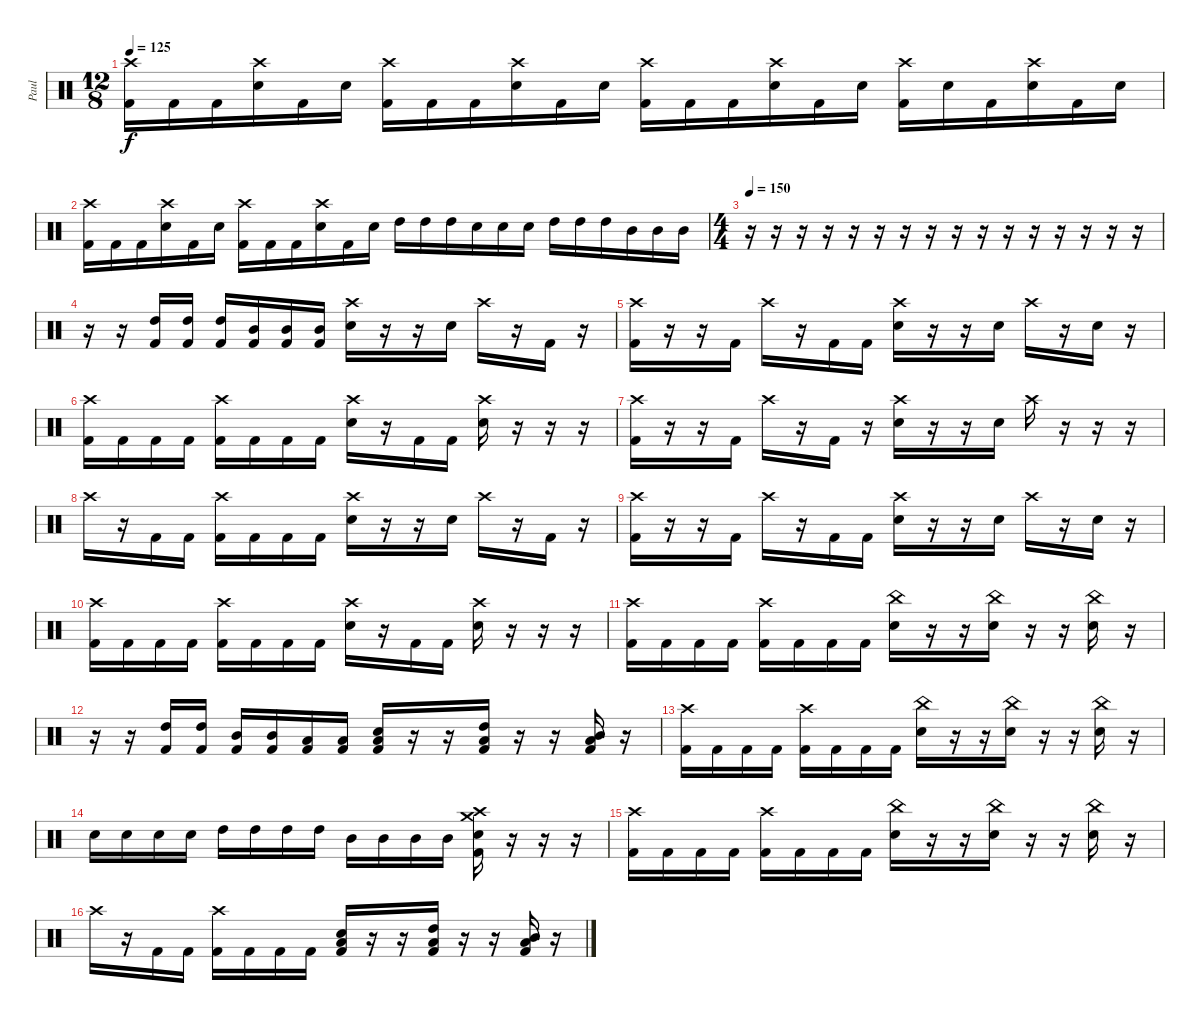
\track ("Paul" "Paul") {instrument percussion}
\staff {score}
\articulation defaults
\ts (12 8)
\tempo 125
\clef neutral
\ks c
("Crash high (hit)" "Kick (hit) 2").16{dy f} "Kick (hit) 2".16 "Kick (hit) 2".16 ("Crash high (hit)" "Electric Snare (hit)").16 "Kick (hit) 2".16 "Electric Snare (hit)".16 ("Crash high (hit)" "Kick (hit) 2").16 "Kick (hit) 2".16 "Kick (hit) 2".16 ("Crash high (hit)" "Electric Snare (hit)").16 "Kick (hit) 2".16 "Electric Snare (hit)".16 ("Crash high (hit)" "Kick (hit) 2").16 "Kick (hit) 2".16 "Kick (hit) 2".16 ("Crash high (hit)" "Electric Snare (hit)").16 "Kick (hit) 2".16 "Electric Snare (hit)".16 ("Crash high (hit)" "Kick (hit) 2").16 "Electric Snare (hit)".16 "Kick (hit) 2".16 ("Crash high (hit)" "Electric Snare (hit)").16 "Kick (hit) 2".16 "Electric Snare (hit)".16 |
("Crash high (hit)" "Kick (hit) 2").16 "Kick (hit) 2".16 "Kick (hit) 2".16 ("Crash high (hit)" "Electric Snare (hit)").16 "Kick (hit) 2".16 "Electric Snare (hit)".16 ("Crash high (hit)" "Kick (hit) 2").16 "Kick (hit) 2".16 "Kick (hit) 2".16 ("Crash high (hit)" "Electric Snare (hit)").16 "Kick (hit) 2".16 "Electric Snare (hit)".16 "High Tom (hit)".16 "High Tom (hit)".16 "High Tom (hit)".16 "Electric Snare (hit)".16 "Electric Snare (hit)".16 "Electric Snare (hit)".16 "High Tom (hit)".16 "High Tom (hit)".16 "High Tom (hit)".16 "Mid Tom (hit)".16 "Mid Tom (hit)".16 "Mid Tom (hit)".16 |
\ts (4 4)
\tempo 150
r.16 r.16 r.16 r.16 r.16 r.16 r.16 r.16 r.16 r.16 r.16 r.16 r.16 r.16 r.16 r.16 |
r.16 r.16 ("High Tom (hit)" "Kick (hit) 2").16 ("High Tom (hit)" "Kick (hit) 2").16 ("High Tom (hit)" "Kick (hit) 2").16 ("Mid Tom (hit)" "Kick (hit) 2").16 ("Mid Tom (hit)" "Kick (hit) 2").16 ("Mid Tom (hit)" "Kick (hit) 2").16 ("Crash high (hit)" "Electric Snare (hit)").16 r.16 r.16 "Electric Snare (hit)".16 "Crash high (hit)".16 r.16 "Kick (hit) 2".16 r.16 |
("Crash high (hit)" "Kick (hit) 2").16 r.16 r.16 "Kick (hit) 2".16 "Crash high (hit)".16 r.16 "Kick (hit) 2".16 "Kick (hit) 2".16 ("Crash high (hit)" "Electric Snare (hit)").16 r.16 r.16 "Electric Snare (hit)".16 "Crash high (hit)".16 r.16 "Electric Snare (hit)".16 r.16 |
("Crash high (hit)" "Kick (hit) 2").16 "Kick (hit) 2".16 "Kick (hit) 2".16 "Kick (hit) 2".16 ("Crash high (hit)" "Kick (hit) 2").16 "Kick (hit) 2".16 "Kick (hit) 2".16 "Kick (hit) 2".16 ("Crash high (hit)" "Electric Snare (hit)").16 r.16 "Kick (hit) 2".16 "Kick (hit) 2".16 ("Crash high (hit)" "Electric Snare (hit)").16 r.16 r.16 r.16 |
("Crash high (hit)" "Kick (hit) 2").16 r.16 r.16 "Kick (hit) 2".16 "Crash high (hit)".16 r.16 "Kick (hit) 2".16 r.16 ("Crash high (hit)" "Electric Snare (hit)").16 r.16 r.16 "Electric Snare (hit)".16 "Crash high (hit)".16 r.16 r.16 r.16 |
"Crash high (hit)".16 r.16 "Kick (hit) 2".16 "Kick (hit) 2".16 ("Crash high (hit)" "Kick (hit) 2").16 "Kick (hit) 2".16 "Kick (hit) 2".16 "Kick (hit) 2".16 ("Crash high (hit)" "Electric Snare (hit)").16 r.16 r.16 "Electric Snare (hit)".16 "Crash high (hit)".16 r.16 "Kick (hit) 2".16 r.16 |
("Crash high (hit)" "Kick (hit) 2").16 r.16 r.16 "Kick (hit) 2".16 "Crash high (hit)".16 r.16 "Kick (hit) 2".16 "Kick (hit) 2".16 ("Crash high (hit)" "Electric Snare (hit)").16 r.16 r.16 "Electric Snare (hit)".16 "Crash high (hit)".16 r.16 "Electric Snare (hit)".16 r.16 |
("Crash high (hit)" "Kick (hit) 2").16 "Kick (hit) 2".16 "Kick (hit) 2".16 "Kick (hit) 2".16 ("Crash high (hit)" "Kick (hit) 2").16 "Kick (hit) 2".16 "Kick (hit) 2".16 "Kick (hit) 2".16 ("Crash high (hit)" "Electric Snare (hit)").16 r.16 "Kick (hit) 2".16 "Kick (hit) 2".16 ("Crash high (hit)" "Electric Snare (hit)").16 r.16 r.16 r.16 |
("Crash high (hit)" "Kick (hit) 2").16 "Kick (hit) 2".16 "Kick (hit) 2".16 "Kick (hit) 2".16 ("Crash high (hit)" "Kick (hit) 2").16 "Kick (hit) 2".16 "Kick (hit) 2".16 "Kick (hit) 2".16 ("China (hit)" "Electric Snare (hit)").16 r.16 r.16 ("China (hit)" "Electric Snare (hit)").16 r.16 r.16 ("China (hit)" "Electric Snare (hit)").16 r.16 |
r.16 r.16 ("High Tom (hit)" "Kick (hit) 2").16 ("High Tom (hit)" "Kick (hit) 2").16 ("Mid Tom (hit)" "Kick (hit) 2").16 ("Mid Tom (hit)" "Kick (hit) 2").16 ("Low Tom (hit)" "Kick (hit) 2").16 ("Low Tom (hit)" "Kick (hit) 2").16 ("Electric Snare (hit)" "Low Tom (hit)" "Kick (hit) 2").16 r.16 r.16 ("High Tom (hit)" "Low Tom (hit)" "Kick (hit) 2").16 r.16 r.16 ("Mid Tom (hit)" "Low Tom (hit)" "Kick (hit) 2").16 r.16 |
("Crash high (hit)" "Kick (hit) 2").16 "Kick (hit) 2".16 "Kick (hit) 2".16 "Kick (hit) 2".16 ("Crash high (hit)" "Kick (hit) 2").16 "Kick (hit) 2".16 "Kick (hit) 2".16 "Kick (hit) 2".16 ("China (hit)" "Electric Snare (hit)").16 r.16 r.16 ("China (hit)" "Electric Snare (hit)").16 r.16 r.16 ("China (hit)" "Electric Snare (hit)").16 r.16 |
"Electric Snare (hit)".16 "Electric Snare (hit)".16 "Electric Snare (hit)".16 "Electric Snare (hit)".16 "High Tom (hit)".16 "High Tom (hit)".16 "High Tom (hit)".16 "High Tom (hit)".16 "Mid Tom (hit)".16 "Mid Tom (hit)".16 "Mid Tom (hit)".16 "Mid Tom (hit)".16 ("Crash high (hit)" "Crash medium (hit)" "Electric Snare (hit)" "Kick (hit) 2").16 r.16 r.16 r.16 |
("Crash high (hit)" "Kick (hit) 2").16 "Kick (hit) 2".16 "Kick (hit) 2".16 "Kick (hit) 2".16 ("Crash high (hit)" "Kick (hit) 2").16 "Kick (hit) 2".16 "Kick (hit) 2".16 "Kick (hit) 2".16 ("China (hit)" "Electric Snare (hit)").16 r.16 r.16 ("China (hit)" "Electric Snare (hit)").16 r.16 r.16 ("China (hit)" "Electric Snare (hit)").16 r.16 |
"Crash high (hit)".16 r.16 "Kick (hit) 2".16 "Kick (hit) 2".16 ("Crash high (hit)" "Kick (hit) 2").16 "Kick (hit) 2".16 "Kick (hit) 2".16 "Kick (hit) 2".16 ("Electric Snare (hit)" "Low Tom (hit)" "Kick (hit) 2").16 r.16 r.16 ("High Tom (hit)" "Low Tom (hit)" "Kick (hit) 2").16 r.16 r.16 ("Mid Tom (hit)" "Low Tom (hit)" "Kick (hit) 2").16 r.16
